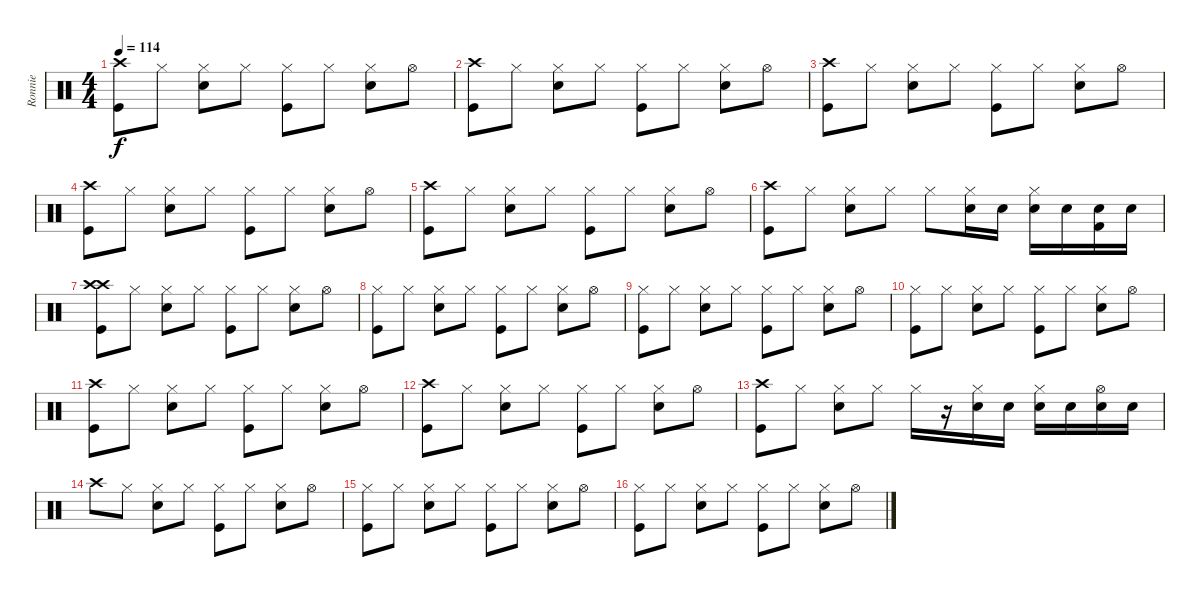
\track ("Ronnie" "Ronnie") {instrument percussion}
\staff {score}
\articulation defaults
\ts (4 4)
\tempo 114
\clef neutral
\ks c
("Crash high (hit)" "Kick (hit)").8{dy f} "Hi-Hat (closed)".8 ("Hi-Hat (closed)" "Electric Snare (hit)").8 "Hi-Hat (closed)".8 ("Hi-Hat (closed)" "Kick (hit)").8 "Hi-Hat (closed)".8 ("Hi-Hat (closed)" "Electric Snare (hit)").8 "Hi-Hat (open)".8 |
("Crash high (hit)" "Kick (hit)").8 "Hi-Hat (closed)".8 ("Hi-Hat (closed)" "Electric Snare (hit)").8 "Hi-Hat (closed)".8 ("Hi-Hat (closed)" "Kick (hit)").8 "Hi-Hat (closed)".8 ("Hi-Hat (closed)" "Electric Snare (hit)").8 "Hi-Hat (open)".8 |
("Crash high (hit)" "Kick (hit)").8 "Hi-Hat (closed)".8 ("Hi-Hat (closed)" "Electric Snare (hit)").8 "Hi-Hat (closed)".8 ("Hi-Hat (closed)" "Kick (hit)").8 "Hi-Hat (closed)".8 ("Hi-Hat (closed)" "Electric Snare (hit)").8 "Hi-Hat (open)".8 |
("Crash high (hit)" "Kick (hit)").8 "Hi-Hat (closed)".8 ("Hi-Hat (closed)" "Electric Snare (hit)").8 "Hi-Hat (closed)".8 ("Hi-Hat (closed)" "Kick (hit)").8 "Hi-Hat (closed)".8 ("Hi-Hat (closed)" "Electric Snare (hit)").8 "Hi-Hat (open)".8 |
("Crash high (hit)" "Kick (hit)").8 "Hi-Hat (closed)".8 ("Hi-Hat (closed)" "Electric Snare (hit)").8 "Hi-Hat (closed)".8 ("Hi-Hat (closed)" "Kick (hit)").8 "Hi-Hat (closed)".8 ("Hi-Hat (closed)" "Electric Snare (hit)").8 "Hi-Hat (open)".8 |
("Crash high (hit)" "Kick (hit)").8 "Hi-Hat (closed)".8 ("Hi-Hat (closed)" "Electric Snare (hit)").8 "Hi-Hat (closed)".8 "Hi-Hat (closed)".8 ("Hi-Hat (closed)" "Electric Snare (hit)").16 "Electric Snare (hit)".16 ("Hi-Hat (closed)" "Electric Snare (hit)").16 "Electric Snare (hit)".16 ("Kick (hit) 2" "Electric Snare (hit)").16 "Electric Snare (hit)".16 |
("Crash high (hit)" "Crash high (hit)" "Kick (hit)").8 "Hi-Hat (closed)".8 ("Hi-Hat (closed)" "Electric Snare (hit)").8 "Hi-Hat (closed)".8 ("Hi-Hat (closed)" "Kick (hit)").8 "Hi-Hat (closed)".8 ("Hi-Hat (closed)" "Electric Snare (hit)").8 "Hi-Hat (open)".8 |
("Hi-Hat (closed)" "Kick (hit)").8 "Hi-Hat (closed)".8 ("Hi-Hat (closed)" "Electric Snare (hit)").8 "Hi-Hat (closed)".8 ("Hi-Hat (closed)" "Kick (hit)").8 "Hi-Hat (closed)".8 ("Hi-Hat (closed)" "Electric Snare (hit)").8 "Hi-Hat (open)".8 |
("Hi-Hat (closed)" "Kick (hit)").8 "Hi-Hat (closed)".8 ("Hi-Hat (closed)" "Electric Snare (hit)").8 "Hi-Hat (closed)".8 ("Hi-Hat (closed)" "Kick (hit)").8 "Hi-Hat (closed)".8 ("Hi-Hat (closed)" "Electric Snare (hit)").8 "Hi-Hat (open)".8 |
("Hi-Hat (closed)" "Kick (hit)").8 "Hi-Hat (closed)".8 ("Hi-Hat (closed)" "Electric Snare (hit)").8 "Hi-Hat (closed)".8 ("Hi-Hat (closed)" "Kick (hit)").8 "Hi-Hat (closed)".8 ("Hi-Hat (closed)" "Electric Snare (hit)").8 "Hi-Hat (open)".8 |
("Crash high (hit)" "Kick (hit)").8 "Hi-Hat (closed)".8 ("Hi-Hat (closed)" "Electric Snare (hit)").8 "Hi-Hat (closed)".8 ("Hi-Hat (closed)" "Kick (hit)").8 "Hi-Hat (closed)".8 ("Hi-Hat (closed)" "Electric Snare (hit)").8 "Hi-Hat (open)".8 |
("Crash high (hit)" "Kick (hit)").8 "Hi-Hat (closed)".8 ("Hi-Hat (closed)" "Electric Snare (hit)").8 "Hi-Hat (closed)".8 ("Hi-Hat (closed)" "Kick (hit)").8 "Hi-Hat (closed)".8 ("Hi-Hat (closed)" "Electric Snare (hit)").8 "Hi-Hat (open)".8 |
("Crash high (hit)" "Kick (hit)").8 "Hi-Hat (closed)".8 ("Hi-Hat (closed)" "Electric Snare (hit)").8 "Hi-Hat (closed)".8 "Hi-Hat (closed)".16 r.16 ("Hi-Hat (closed)" "Electric Snare (hit)").16 "Electric Snare (hit)".16 ("Hi-Hat (closed)" "Electric Snare (hit)").16 "Electric Snare (hit)".16 ("Hi-Hat (open)" "Electric Snare (hit)").16 "Electric Snare (hit)".16 |
"Crash high (hit)".8 "Hi-Hat (closed)".8 ("Hi-Hat (closed)" "Electric Snare (hit)").8 "Hi-Hat (closed)".8 ("Hi-Hat (closed)" "Kick (hit)").8 "Hi-Hat (closed)".8 ("Hi-Hat (closed)" "Electric Snare (hit)").8 "Hi-Hat (open)".8 |
("Hi-Hat (closed)" "Kick (hit)").8 "Hi-Hat (closed)".8 ("Hi-Hat (closed)" "Electric Snare (hit)").8 "Hi-Hat (closed)".8 ("Hi-Hat (closed)" "Kick (hit)").8 "Hi-Hat (closed)".8 ("Hi-Hat (closed)" "Electric Snare (hit)").8 "Hi-Hat (open)".8 |
("Hi-Hat (closed)" "Kick (hit)").8 "Hi-Hat (closed)".8 ("Hi-Hat (closed)" "Electric Snare (hit)").8 "Hi-Hat (closed)".8 ("Hi-Hat (closed)" "Kick (hit)").8 "Hi-Hat (closed)".8 ("Hi-Hat (closed)" "Electric Snare (hit)").8 "Hi-Hat (open)".8
